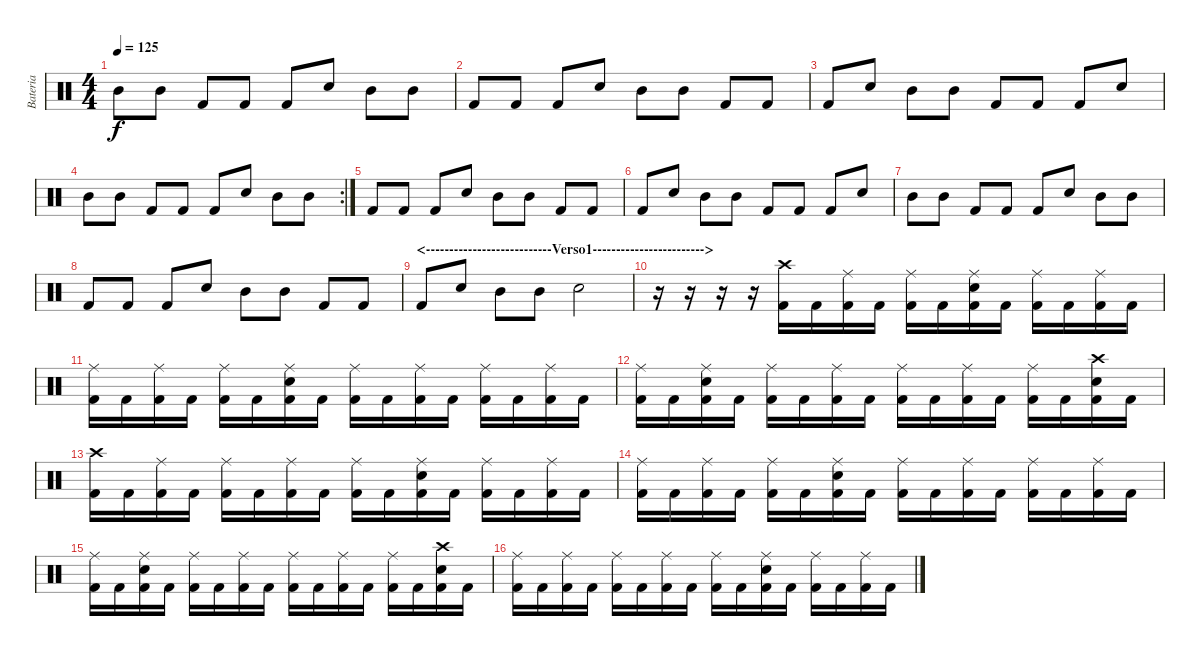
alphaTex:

\track ("Bateria" "Bateria") {instrument percussion}
\staff {score}
\articulation defaults
\ts (4 4)
\tempo 125
\clef neutral
\ks c "Mid Tom (hit)".8{dy f} "Mid Tom (hit)".8 "Kick (hit) 2".8 "Kick (hit) 2".8 "Kick (hit) 2".8 "Snare (hit) 2".8 "Mid Tom (hit)".8 "Mid Tom (hit)".8
|
"Kick (hit) 2".8 "Kick (hit) 2".8 "Kick (hit) 2".8 "Snare (hit) 2".8 "Mid Tom (hit)".8 "Mid Tom (hit)".8 "Kick (hit) 2".8 "Kick (hit) 2".8 |
"Kick (hit) 2".8 "Snare (hit) 2".8 "Mid Tom (hit)".8 "Mid Tom (hit)".8 "Kick (hit) 2".8 "Kick (hit) 2".8 "Kick (hit) 2".8 "Snare (hit) 2".8 |
\rc 2 "Mid Tom (hit)".8 "Mid Tom (hit)".8 "Kick (hit) 2".8 "Kick (hit) 2".8 "Kick (hit) 2".8 "Snare (hit) 2".8 "Mid Tom (hit)".8 "Mid Tom (hit)".8
|
"Kick (hit) 2".8 "Kick (hit) 2".8 "Kick (hit) 2".8 "Snare (hit) 2".8 "Mid Tom (hit)".8 "Mid Tom (hit)".8 "Kick (hit) 2".8 "Kick (hit) 2".8 |
"Kick (hit) 2".8 "Snare (hit) 2".8 "Mid Tom (hit)".8 "Mid Tom (hit)".8 "Kick (hit) 2".8 "Kick (hit) 2".8 "Kick (hit) 2".8 "Snare (hit) 2".8 |
"Mid Tom (hit)".8 "Mid Tom (hit)".8 "Kick (hit) 2".8 "Kick (hit) 2".8 "Kick (hit) 2".8 "Snare (hit) 2".8 "Mid Tom (hit)".8 "Mid Tom (hit)".8 |
"Kick (hit) 2".8 "Kick (hit) 2".8 "Kick (hit) 2".8 "Snare (hit) 2".8 "Mid Tom (hit)".8 "Mid Tom (hit)".8 "Kick (hit) 2".8 "Kick (hit) 2".8 |
\section ("" "<---------------------------Verso1------------------------>")
"Kick (hit) 2".8 "Snare (hit) 2".8 "Mid Tom (hit)".8 "Mid Tom (hit)".8 "Snare (hit) 2".2 |
r.16 r.16 r.16 r.16 ("Crash high (hit)" "Kick (hit) 2").16 "Kick (hit) 2".16 ("Kick (hit) 2" "Ride (middle)").16 "Kick (hit) 2".16 ("Kick (hit) 2" "Ride (middle)").16 "Kick (hit) 2".16 ("Snare (hit) 2" "Kick (hit) 2" "Ride (middle)").16 "Kick (hit) 2".16 ("Kick (hit) 2" "Ride (middle)").16 "Kick (hit) 2".16 ("Kick (hit) 2" "Ride (middle)").16 "Kick (hit) 2".16 |
("Kick (hit) 2" "Ride (middle)").16 "Kick (hit) 2".16 ("Kick (hit) 2" "Ride (middle)").16 "Kick (hit) 2".16 ("Kick (hit) 2" "Ride (middle)").16 "Kick (hit) 2".16 ("Snare (hit) 2" "Kick (hit) 2" "Ride (middle)").16 "Kick (hit) 2".16 ("Kick (hit) 2" "Ride (middle)").16 "Kick (hit) 2".16 ("Kick (hit) 2" "Ride (middle)").16 "Kick (hit) 2".16 ("Kick (hit) 2" "Ride (middle)").16 "Kick (hit) 2".16 ("Kick (hit) 2" "Ride (middle)").16 "Kick (hit) 2".16 |
("Kick (hit) 2" "Ride (middle)").16 "Kick (hit) 2".16 ("Snare (hit) 2" "Kick (hit) 2" "Ride (middle)").16 "Kick (hit) 2".16 ("Kick (hit) 2" "Ride (middle)").16 "Kick (hit) 2".16 ("Kick (hit) 2" "Ride (middle)").16 "Kick (hit) 2".16 ("Kick (hit) 2" "Ride (middle)").16 "Kick (hit) 2".16 ("Kick (hit) 2" "Ride (middle)").16 "Kick (hit) 2".16 ("Kick (hit) 2" "Ride (middle)").16 "Kick (hit) 2".16 ("Snare (hit) 2" "Kick (hit) 2" "Crash high (hit)").16 "Kick (hit) 2".16 |
("Kick (hit) 2" "Crash high (hit)").16 "Kick (hit) 2".16 ("Kick (hit) 2" "Ride (middle)").16 "Kick (hit) 2".16 ("Kick (hit) 2" "Ride (middle)").16 "Kick (hit) 2".16 ("Kick (hit) 2" "Ride (middle)").16 "Kick (hit) 2".16 ("Kick (hit) 2" "Ride (middle)").16 "Kick (hit) 2".16 ("Snare (hit) 2" "Kick (hit) 2" "Ride (middle)").16 "Kick (hit) 2".16 ("Kick (hit) 2" "Ride (middle)").16 "Kick (hit) 2".16 ("Kick (hit) 2" "Ride (middle)").16 "Kick (hit) 2".16 |
("Kick (hit) 2" "Ride (middle)").16 "Kick (hit) 2".16 ("Kick (hit) 2" "Ride (middle)").16 "Kick (hit) 2".16 ("Kick (hit) 2" "Ride (middle)").16 "Kick (hit) 2".16 ("Snare (hit) 2" "Kick (hit) 2" "Ride (middle)").16 "Kick (hit) 2".16 ("Kick (hit) 2" "Ride (middle)").16 "Kick (hit) 2".16 ("Kick (hit) 2" "Ride (middle)").16 "Kick (hit) 2".16 ("Kick (hit) 2" "Ride (middle)").16 "Kick (hit) 2".16 ("Kick (hit) 2" "Ride (middle)").16 "Kick (hit) 2".16 |
("Kick (hit) 2" "Ride (middle)").16 "Kick (hit) 2".16 ("Snare (hit) 2" "Kick (hit) 2" "Ride (middle)").16 "Kick (hit) 2".16 ("Kick (hit) 2" "Ride (middle)").16 "Kick (hit) 2".16 ("Kick (hit) 2" "Ride (middle)").16 "Kick (hit) 2".16 ("Kick (hit) 2" "Ride (middle)").16 "Kick (hit) 2".16 ("Kick (hit) 2" "Ride (middle)").16 "Kick (hit) 2".16 ("Kick (hit) 2" "Ride (middle)").16 "Kick (hit) 2".16 ("Snare (hit) 2" "Kick (hit) 2" "Crash high (hit)").16 "Kick (hit) 2".16 |
("Kick (hit) 2" "Ride (middle)").16 "Kick (hit) 2".16 ("Kick (hit) 2" "Ride (middle)").16 "Kick (hit) 2".16 ("Kick (hit) 2" "Ride (middle)").16 "Kick (hit) 2".16 ("Kick (hit) 2" "Ride (middle)").16 "Kick (hit) 2".16 ("Kick (hit) 2" "Ride (middle)").16 "Kick (hit) 2".16 ("Snare (hit) 2" "Kick (hit) 2" "Ride (middle)").16 "Kick (hit) 2".16 ("Kick (hit) 2" "Ride (middle)").16 "Kick (hit) 2".16 ("Kick (hit) 2" "Ride (middle)").16 "Kick (hit) 2".16
